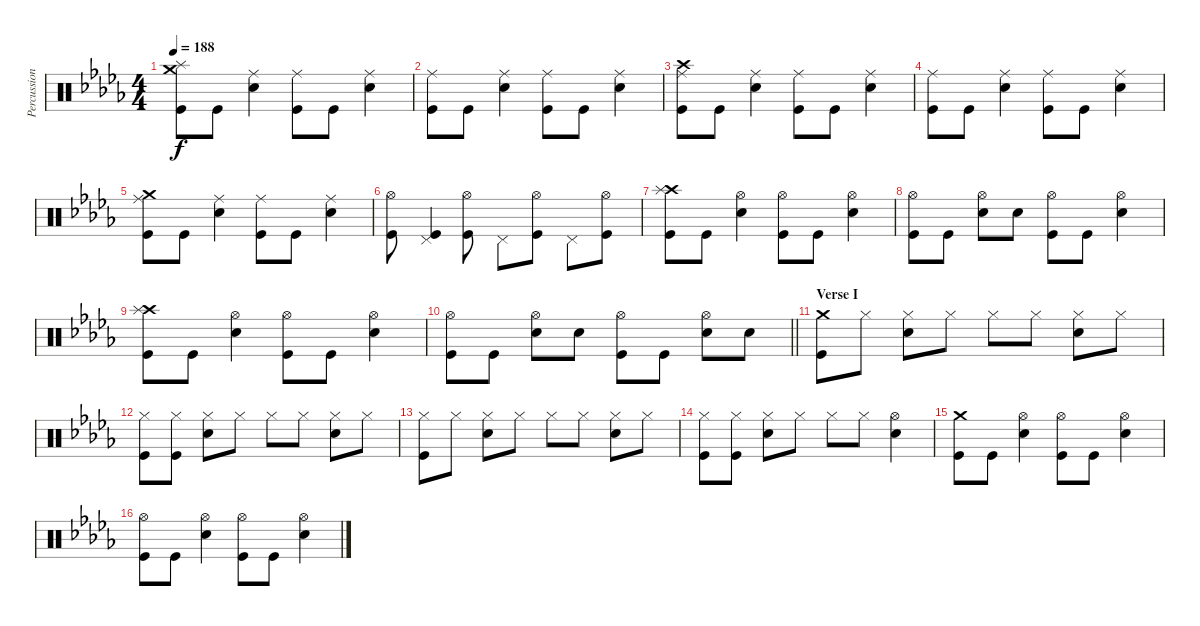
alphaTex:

\track ("Percussion" "Percussion") {instrument percussion}
\staff {score}
\articulation defaults
\ts (4 4)
\tempo 188
\clef neutral
\ks db
("Crash medium (hit)" "Splash (hit)" "Kick (hit)").8{dy f} "Kick (hit)".8 ("Ride (middle)" "Electric Snare (hit)").4 ("Ride (middle)" "Kick (hit)").8 "Kick (hit)".8 ("Ride (middle)" "Electric Snare (hit)").4 |
("Ride (middle)" "Kick (hit)").8 "Kick (hit)".8 ("Ride (middle)" "Electric Snare (hit)").4 ("Ride (middle)" "Kick (hit)").8 "Kick (hit)".8 ("Ride (middle)" "Electric Snare (hit)").4 |
("Crash high (hit)" "Ride (middle)" "Kick (hit)").8 "Kick (hit)".8 ("Ride (middle)" "Electric Snare (hit)").4 ("Ride (middle)" "Kick (hit)").8 "Kick (hit)".8 ("Ride (middle)" "Electric Snare (hit)").4 |
("Ride (middle)" "Kick (hit)").8 "Kick (hit)".8 ("Ride (middle)" "Electric Snare (hit)").4 ("Ride (middle)" "Kick (hit)").8 "Kick (hit)".8 ("Ride (middle)" "Electric Snare (hit)").4 |
("Crash medium (hit)" "Ride (middle)" "Kick (hit)").8 "Kick (hit)".8 ("Ride (middle)" "Electric Snare (hit)").4 ("Ride (middle)" "Kick (hit)").8 "Kick (hit)".8 ("Ride (middle)" "Electric Snare (hit)").4 |
("Hi-Hat (open)" "Kick (hit)").8 ("Pedal Hi-Hat (hit)" "Kick (hit)").4 ("Hi-Hat (open)" "Kick (hit)").8 "Pedal Hi-Hat (hit)".8 ("Hi-Hat (open)" "Kick (hit)").8 "Pedal Hi-Hat (hit)".8 ("Hi-Hat (open)" "Kick (hit)").8 |
("Crash high (hit)" "Splash (hit)" "Kick (hit)").8 "Kick (hit)".8 ("Hi-Hat (open)" "Electric Snare (hit)").4 ("Hi-Hat (open)" "Kick (hit)").8 "Kick (hit)".8 ("Hi-Hat (open)" "Electric Snare (hit)").4 |
("Hi-Hat (open)" "Kick (hit)").8 "Kick (hit)".8 ("Hi-Hat (open)" "Electric Snare (hit)").8 "Electric Snare (hit)".8 ("Hi-Hat (open)" "Kick (hit)").8 "Kick (hit)".8 ("Hi-Hat (open)" "Electric Snare (hit)").4 |
("Crash high (hit)" "Splash (hit)" "Kick (hit)").8 "Kick (hit)".8 ("Hi-Hat (open)" "Electric Snare (hit)").4 ("Hi-Hat (open)" "Kick (hit)").8 "Kick (hit)".8 ("Hi-Hat (open)" "Electric Snare (hit)").4 |
\barLineRight lightlight
("Hi-Hat (open)" "Kick (hit)").8 "Kick (hit)".8 ("Hi-Hat (open)" "Electric Snare (hit)").8 "Electric Snare (hit)".8 ("Hi-Hat (open)" "Kick (hit)").8 "Kick (hit)".8 ("Hi-Hat (open)" "Electric Snare (hit)").8 "Electric Snare (hit)".8 |
\section ("" "Verse I")
("Crash medium (hit)" "Kick (hit)").8 "Hi-Hat (closed)".8 ("Hi-Hat (closed)" "Electric Snare (hit)").8 "Hi-Hat (closed)".8 "Hi-Hat (closed)".8 "Hi-Hat (closed)".8 ("Hi-Hat (closed)" "Electric Snare (hit)").8 "Hi-Hat (closed)".8 |
("Hi-Hat (closed)" "Kick (hit)").8 ("Hi-Hat (closed)" "Kick (hit)").8 ("Hi-Hat (closed)" "Electric Snare (hit)").8 "Hi-Hat (closed)".8 "Hi-Hat (closed)".8 "Hi-Hat (closed)".8 ("Hi-Hat (closed)" "Electric Snare (hit)").8 "Hi-Hat (closed)".8 |
("Hi-Hat (closed)" "Kick (hit)").8 "Hi-Hat (closed)".8 ("Hi-Hat (closed)" "Electric Snare (hit)").8 "Hi-Hat (closed)".8 "Hi-Hat (closed)".8 "Hi-Hat (closed)".8 ("Hi-Hat (closed)" "Electric Snare (hit)").8 "Hi-Hat (closed)".8 |
("Hi-Hat (closed)" "Kick (hit)").8 ("Hi-Hat (closed)" "Kick (hit)").8 ("Hi-Hat (closed)" "Electric Snare (hit)").8 "Hi-Hat (closed)".8 "Hi-Hat (closed)".8 "Hi-Hat (closed)".8 ("Hi-Hat (open)" "Electric Snare (hit)").4 |
("Crash medium (hit)" "Kick (hit)").8 "Kick (hit)".8 ("Hi-Hat (open)" "Electric Snare (hit)").4 ("Hi-Hat (open)" "Kick (hit)").8 "Kick (hit)".8 ("Hi-Hat (open)" "Electric Snare (hit)").4 |
("Hi-Hat (open)" "Kick (hit)").8 "Kick (hit)".8 ("Hi-Hat (open)" "Electric Snare (hit)").4 ("Hi-Hat (open)" "Kick (hit)").8 "Kick (hit)".8 ("Hi-Hat (open)" "Electric Snare (hit)").4
